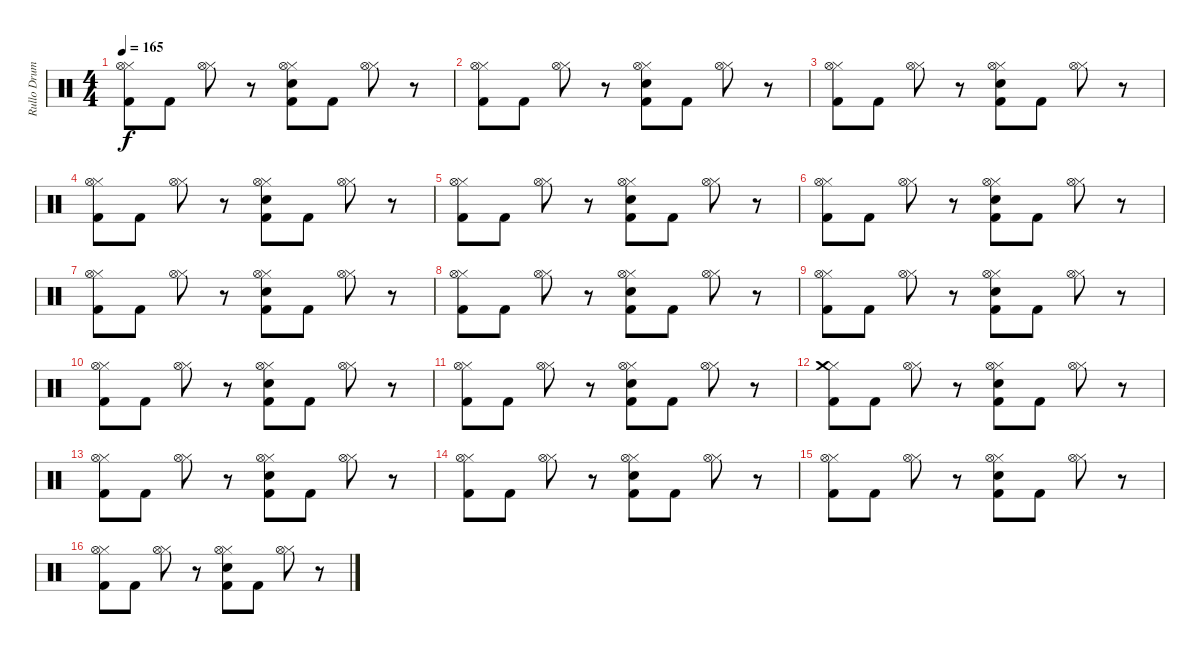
\track ("Rullo Drums" "Rullo Drum") {instrument percussion}
\staff {score}
\articulation defaults
\ts (4 4)
\tempo 165
\clef neutral
\ks c
("Hi-Hat (closed)" "Kick (hit) 2" "Hi-Hat (open)").8{dy f} "Kick (hit) 2".8 ("Hi-Hat (closed)" "Hi-Hat (open)").8 r.8 ("Hi-Hat (closed)" "Kick (hit) 2" "Electric Snare (hit)" "Hi-Hat (open)").8 "Kick (hit) 2".8 ("Hi-Hat (closed)" "Hi-Hat (open)").8 r.8 |
("Hi-Hat (closed)" "Kick (hit) 2" "Hi-Hat (open)").8 "Kick (hit) 2".8 ("Hi-Hat (closed)" "Hi-Hat (open)").8 r.8 ("Hi-Hat (closed)" "Kick (hit) 2" "Electric Snare (hit)" "Hi-Hat (open)").8 "Kick (hit) 2".8 ("Hi-Hat (closed)" "Hi-Hat (open)").8 r.8 |
("Hi-Hat (closed)" "Kick (hit) 2" "Hi-Hat (open)").8 "Kick (hit) 2".8 ("Hi-Hat (closed)" "Hi-Hat (open)").8 r.8 ("Hi-Hat (closed)" "Kick (hit) 2" "Electric Snare (hit)" "Hi-Hat (open)").8 "Kick (hit) 2".8 ("Hi-Hat (closed)" "Hi-Hat (open)").8 r.8 |
("Hi-Hat (closed)" "Kick (hit) 2" "Hi-Hat (open)").8 "Kick (hit) 2".8 ("Hi-Hat (closed)" "Hi-Hat (open)").8 r.8 ("Hi-Hat (closed)" "Kick (hit) 2" "Electric Snare (hit)" "Hi-Hat (open)").8 "Kick (hit) 2".8 ("Hi-Hat (closed)" "Hi-Hat (open)").8 r.8 |
("Hi-Hat (closed)" "Kick (hit) 2" "Hi-Hat (open)").8 "Kick (hit) 2".8 ("Hi-Hat (closed)" "Hi-Hat (open)").8 r.8 ("Hi-Hat (closed)" "Kick (hit) 2" "Electric Snare (hit)" "Hi-Hat (open)").8 "Kick (hit) 2".8 ("Hi-Hat (closed)" "Hi-Hat (open)").8 r.8 |
("Hi-Hat (closed)" "Kick (hit) 2" "Hi-Hat (open)").8 "Kick (hit) 2".8 ("Hi-Hat (closed)" "Hi-Hat (open)").8 r.8 ("Hi-Hat (closed)" "Kick (hit) 2" "Electric Snare (hit)" "Hi-Hat (open)").8 "Kick (hit) 2".8 ("Hi-Hat (closed)" "Hi-Hat (open)").8 r.8 |
("Hi-Hat (closed)" "Kick (hit) 2" "Hi-Hat (open)").8 "Kick (hit) 2".8 ("Hi-Hat (closed)" "Hi-Hat (open)").8 r.8 ("Hi-Hat (closed)" "Kick (hit) 2" "Electric Snare (hit)" "Hi-Hat (open)").8 "Kick (hit) 2".8 ("Hi-Hat (closed)" "Hi-Hat (open)").8 r.8 |
("Hi-Hat (closed)" "Kick (hit) 2" "Hi-Hat (open)").8 "Kick (hit) 2".8 ("Hi-Hat (closed)" "Hi-Hat (open)").8 r.8 ("Hi-Hat (closed)" "Kick (hit) 2" "Electric Snare (hit)" "Hi-Hat (open)").8 "Kick (hit) 2".8 ("Hi-Hat (closed)" "Hi-Hat (open)").8 r.8 |
("Hi-Hat (closed)" "Kick (hit) 2" "Hi-Hat (open)").8 "Kick (hit) 2".8 ("Hi-Hat (closed)" "Hi-Hat (open)").8 r.8 ("Hi-Hat (closed)" "Kick (hit) 2" "Electric Snare (hit)" "Hi-Hat (open)").8 "Kick (hit) 2".8 ("Hi-Hat (closed)" "Hi-Hat (open)").8 r.8 |
("Hi-Hat (closed)" "Kick (hit) 2" "Hi-Hat (open)").8 "Kick (hit) 2".8 ("Hi-Hat (closed)" "Hi-Hat (open)").8 r.8 ("Hi-Hat (closed)" "Kick (hit) 2" "Electric Snare (hit)" "Hi-Hat (open)").8 "Kick (hit) 2".8 ("Hi-Hat (closed)" "Hi-Hat (open)").8 r.8 |
("Hi-Hat (closed)" "Kick (hit) 2" "Hi-Hat (open)").8 "Kick (hit) 2".8 ("Hi-Hat (closed)" "Hi-Hat (open)").8 r.8 ("Hi-Hat (closed)" "Kick (hit) 2" "Electric Snare (hit)" "Hi-Hat (open)").8 "Kick (hit) 2".8 ("Hi-Hat (closed)" "Hi-Hat (open)").8 r.8 |
("Hi-Hat (closed)" "Kick (hit) 2" "Crash medium (hit)").8 "Kick (hit) 2".8 ("Hi-Hat (closed)" "Hi-Hat (open)").8 r.8 ("Hi-Hat (closed)" "Kick (hit) 2" "Electric Snare (hit)" "Hi-Hat (open)").8 "Kick (hit) 2".8 ("Hi-Hat (closed)" "Hi-Hat (open)").8 r.8 |
("Hi-Hat (closed)" "Kick (hit) 2" "Hi-Hat (open)").8 "Kick (hit) 2".8 ("Hi-Hat (closed)" "Hi-Hat (open)").8 r.8 ("Hi-Hat (closed)" "Kick (hit) 2" "Electric Snare (hit)" "Hi-Hat (open)").8 "Kick (hit) 2".8 ("Hi-Hat (closed)" "Hi-Hat (open)").8 r.8 |
("Hi-Hat (closed)" "Kick (hit) 2" "Hi-Hat (open)").8 "Kick (hit) 2".8 ("Hi-Hat (closed)" "Hi-Hat (open)").8 r.8 ("Hi-Hat (closed)" "Kick (hit) 2" "Electric Snare (hit)" "Hi-Hat (open)").8 "Kick (hit) 2".8 ("Hi-Hat (closed)" "Hi-Hat (open)").8 r.8 |
("Hi-Hat (closed)" "Kick (hit) 2" "Hi-Hat (open)").8 "Kick (hit) 2".8 ("Hi-Hat (closed)" "Hi-Hat (open)").8 r.8 ("Hi-Hat (closed)" "Kick (hit) 2" "Electric Snare (hit)" "Hi-Hat (open)").8 "Kick (hit) 2".8 ("Hi-Hat (closed)" "Hi-Hat (open)").8 r.8 |
("Hi-Hat (closed)" "Kick (hit) 2" "Hi-Hat (open)").8 "Kick (hit) 2".8 ("Hi-Hat (closed)" "Hi-Hat (open)").8 r.8 ("Hi-Hat (closed)" "Kick (hit) 2" "Electric Snare (hit)" "Hi-Hat (open)").8 "Kick (hit) 2".8 ("Hi-Hat (closed)" "Hi-Hat (open)").8 r.8
